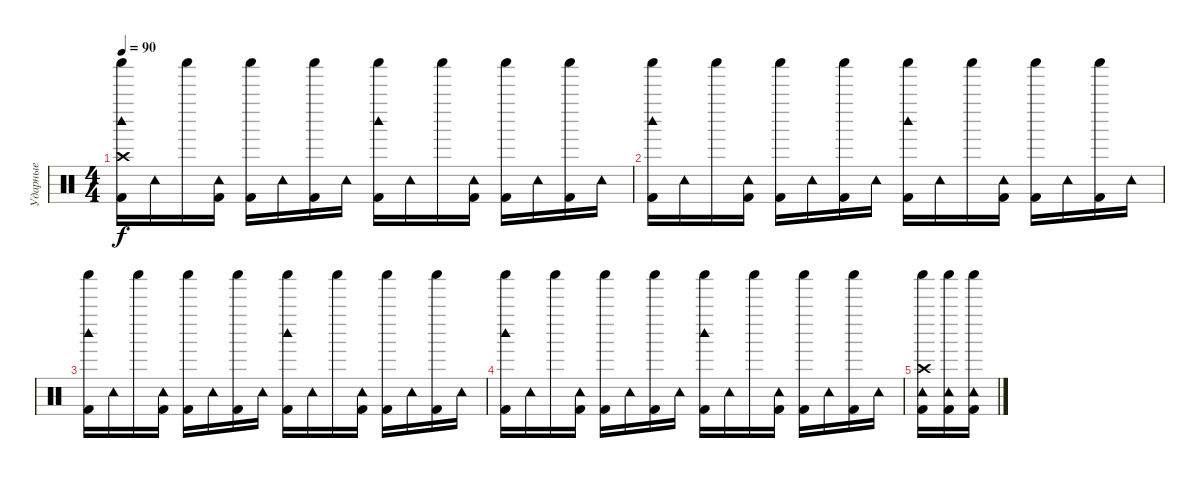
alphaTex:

\track ("Ударные" "Ударные") {instrument percussion}
\staff {score}
\articulation defaults
\ts (4 4)
\tempo 90
\clef neutral
\ks c
("Shaker (hit)" "Kick (hit) 2" "Crash high (hit)" "Woodblock high (hit)").16{dy f} "Tambourine (hit)".16 "Shaker (hit)".16 ("Tambourine (hit)" "Kick (hit) 2").16 ("Shaker (hit)" "Kick (hit) 2").16 "Tambourine (hit)".16 ("Shaker (hit)" "Kick (hit) 2").16 "Tambourine (hit)".16 ("Shaker (hit)" "Kick (hit) 2" "Woodblock high (hit)").16 "Tambourine (hit)".16 "Shaker (hit)".16 ("Tambourine (hit)" "Kick (hit) 2").16 ("Shaker (hit)" "Kick (hit) 2").16 "Tambourine (hit)".16 ("Shaker (hit)" "Kick (hit) 2").16 "Tambourine (hit)".16 |
("Shaker (hit)" "Kick (hit) 2" "Woodblock high (hit)").16 "Tambourine (hit)".16 "Shaker (hit)".16 ("Tambourine (hit)" "Kick (hit) 2").16 ("Shaker (hit)" "Kick (hit) 2").16 "Tambourine (hit)".16 ("Shaker (hit)" "Kick (hit) 2").16 "Tambourine (hit)".16 ("Shaker (hit)" "Kick (hit) 2" "Woodblock high (hit)").16 "Tambourine (hit)".16 "Shaker (hit)".16 ("Tambourine (hit)" "Kick (hit) 2").16 ("Shaker (hit)" "Kick (hit) 2").16 "Tambourine (hit)".16 ("Shaker (hit)" "Kick (hit) 2").16 "Tambourine (hit)".16 |
("Shaker (hit)" "Kick (hit) 2" "Woodblock high (hit)").16 "Tambourine (hit)".16 "Shaker (hit)".16 ("Tambourine (hit)" "Kick (hit) 2").16 ("Shaker (hit)" "Kick (hit) 2").16 "Tambourine (hit)".16 ("Shaker (hit)" "Kick (hit) 2").16 "Tambourine (hit)".16 ("Shaker (hit)" "Kick (hit) 2" "Woodblock high (hit)").16 "Tambourine (hit)".16 "Shaker (hit)".16 ("Tambourine (hit)" "Kick (hit) 2").16 ("Shaker (hit)" "Kick (hit) 2").16 "Tambourine (hit)".16 ("Shaker (hit)" "Kick (hit) 2").16 "Tambourine (hit)".16 |
("Shaker (hit)" "Kick (hit) 2" "Woodblock high (hit)").16 "Tambourine (hit)".16 "Shaker (hit)".16 ("Tambourine (hit)" "Kick (hit) 2").16 ("Shaker (hit)" "Kick (hit) 2").16 "Tambourine (hit)".16 ("Shaker (hit)" "Kick (hit) 2").16 "Tambourine (hit)".16 ("Shaker (hit)" "Kick (hit) 2" "Woodblock high (hit)").16 "Tambourine (hit)".16 "Shaker (hit)".16 ("Tambourine (hit)" "Kick (hit) 2").16 ("Shaker (hit)" "Kick (hit) 2").16 "Tambourine (hit)".16 ("Shaker (hit)" "Kick (hit) 2").16 "Tambourine (hit)".16 |
("Kick (hit) 2" "Shaker (hit)" "Tambourine (hit)" "Crash high (hit)").16 ("Kick (hit) 2" "Shaker (hit)" "Tambourine (hit)").16 ("Kick (hit) 2" "Shaker (hit)" "Tambourine (hit)").16
